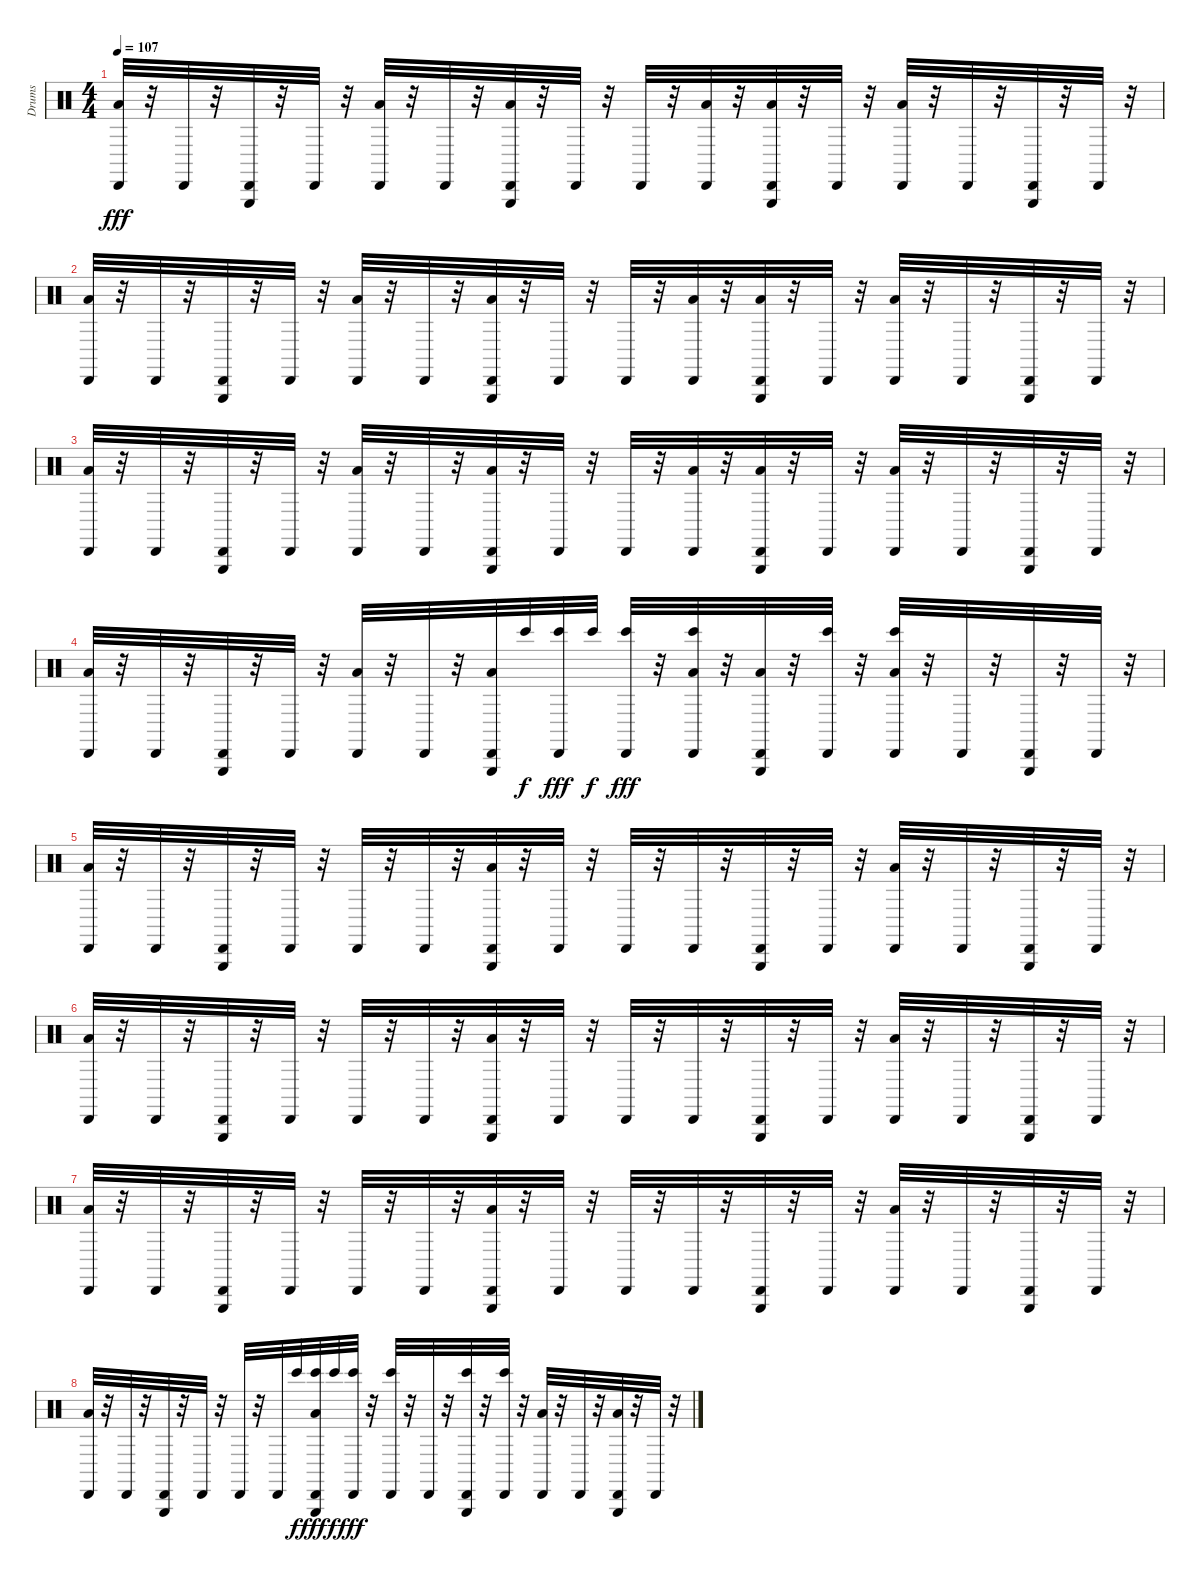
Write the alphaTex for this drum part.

\track ("Drums" "Drums") {instrument percussion}
\staff {score}
\articulation defaults
\ts (4 4)
\tempo 107
\clef neutral
\ks c
("Cabasa (hit)" "Low Floor Tom (hit)").32{dy fff} r.32 "Cabasa (hit)".32 r.32 ("Cabasa (hit)" "Triangle (hit)").32 r.32 "Cabasa (hit)".32 r.32 ("Cabasa (hit)" "Low Floor Tom (hit)").32 r.32 "Cabasa (hit)".32 r.32 ("Cabasa (hit)" "Triangle (hit)" "Low Floor Tom (hit)").32 r.32 "Cabasa (hit)".32 r.32 "Cabasa (hit)".32 r.32 ("Cabasa (hit)" "Low Floor Tom (hit)").32 r.32 ("Cabasa (hit)" "Triangle (hit)" "Low Floor Tom (hit)").32 r.32 "Cabasa (hit)".32 r.32 ("Cabasa (hit)" "Low Floor Tom (hit)").32 r.32 "Cabasa (hit)".32 r.32 ("Cabasa (hit)" "Triangle (hit)").32 r.32 "Cabasa (hit)".32 r.32 |
("Cabasa (hit)" "Low Floor Tom (hit)").32 r.32 "Cabasa (hit)".32 r.32 ("Cabasa (hit)" "Triangle (hit)").32 r.32 "Cabasa (hit)".32 r.32 ("Cabasa (hit)" "Low Floor Tom (hit)").32 r.32 "Cabasa (hit)".32 r.32 ("Cabasa (hit)" "Triangle (hit)" "Low Floor Tom (hit)").32 r.32 "Cabasa (hit)".32 r.32 "Cabasa (hit)".32 r.32 ("Cabasa (hit)" "Low Floor Tom (hit)").32 r.32 ("Cabasa (hit)" "Triangle (hit)" "Low Floor Tom (hit)").32 r.32 "Cabasa (hit)".32 r.32 ("Cabasa (hit)" "Low Floor Tom (hit)").32 r.32 "Cabasa (hit)".32 r.32 ("Cabasa (hit)" "Triangle (hit)").32 r.32 "Cabasa (hit)".32 r.32 |
("Cabasa (hit)" "Low Floor Tom (hit)").32 r.32 "Cabasa (hit)".32 r.32 ("Cabasa (hit)" "Triangle (hit)").32 r.32 "Cabasa (hit)".32 r.32 ("Cabasa (hit)" "Low Floor Tom (hit)").32 r.32 "Cabasa (hit)".32 r.32 ("Cabasa (hit)" "Triangle (hit)" "Low Floor Tom (hit)").32 r.32 "Cabasa (hit)".32 r.32 "Cabasa (hit)".32 r.32 ("Cabasa (hit)" "Low Floor Tom (hit)").32 r.32 ("Cabasa (hit)" "Triangle (hit)" "Low Floor Tom (hit)").32 r.32 "Cabasa (hit)".32 r.32 ("Cabasa (hit)" "Low Floor Tom (hit)").32 r.32 "Cabasa (hit)".32 r.32 ("Cabasa (hit)" "Triangle (hit)").32 r.32 "Cabasa (hit)".32 r.32 |
("Cabasa (hit)" "Low Floor Tom (hit)").32 r.32 "Cabasa (hit)".32 r.32 ("Cabasa (hit)" "Triangle (hit)").32 r.32 "Cabasa (hit)".32 r.32 ("Cabasa (hit)" "Low Floor Tom (hit)").32 r.32 "Cabasa (hit)".32 r.32 ("Cabasa (hit)" "Triangle (hit)" "Low Floor Tom (hit)").32 "Bongo High (hit)".32{dy f} ("Cabasa (hit)" "Bongo High (hit)").32{dy fff} "Bongo High (hit)".32{dy f} ("Cabasa (hit)" "Bongo High (hit)").32{dy fff} r.32 ("Cabasa (hit)" "Low Floor Tom (hit)" "Bongo High (hit)").32 r.32 ("Cabasa (hit)" "Triangle (hit)" "Low Floor Tom (hit)").32 r.32 ("Cabasa (hit)" "Bongo High (hit)").32 r.32 ("Cabasa (hit)" "Low Floor Tom (hit)" "Bongo High (hit)").32 r.32 "Cabasa (hit)".32 r.32 ("Cabasa (hit)" "Triangle (hit)").32 r.32 "Cabasa (hit)".32 r.32 |
("Cabasa (hit)" "Low Floor Tom (hit)").32 r.32 "Cabasa (hit)".32 r.32 ("Cabasa (hit)" "Triangle (hit)").32 r.32 "Cabasa (hit)".32 r.32 "Cabasa (hit)".32 r.32 "Cabasa (hit)".32 r.32 ("Cabasa (hit)" "Triangle (hit)" "Low Floor Tom (hit)").32 r.32 "Cabasa (hit)".32 r.32 "Cabasa (hit)".32 r.32 "Cabasa (hit)".32 r.32 ("Cabasa (hit)" "Triangle (hit)").32 r.32 "Cabasa (hit)".32 r.32 ("Cabasa (hit)" "Low Floor Tom (hit)").32 r.32 "Cabasa (hit)".32 r.32 ("Cabasa (hit)" "Triangle (hit)").32 r.32 "Cabasa (hit)".32 r.32 |
("Cabasa (hit)" "Low Floor Tom (hit)").32 r.32 "Cabasa (hit)".32 r.32 ("Cabasa (hit)" "Triangle (hit)").32 r.32 "Cabasa (hit)".32 r.32 "Cabasa (hit)".32 r.32 "Cabasa (hit)".32 r.32 ("Cabasa (hit)" "Triangle (hit)" "Low Floor Tom (hit)").32 r.32 "Cabasa (hit)".32 r.32 "Cabasa (hit)".32 r.32 "Cabasa (hit)".32 r.32 ("Cabasa (hit)" "Triangle (hit)").32 r.32 "Cabasa (hit)".32 r.32 ("Cabasa (hit)" "Low Floor Tom (hit)").32 r.32 "Cabasa (hit)".32 r.32 ("Cabasa (hit)" "Triangle (hit)").32 r.32 "Cabasa (hit)".32 r.32 |
("Cabasa (hit)" "Low Floor Tom (hit)").32 r.32 "Cabasa (hit)".32 r.32 ("Cabasa (hit)" "Triangle (hit)").32 r.32 "Cabasa (hit)".32 r.32 "Cabasa (hit)".32 r.32 "Cabasa (hit)".32 r.32 ("Cabasa (hit)" "Triangle (hit)" "Low Floor Tom (hit)").32 r.32 "Cabasa (hit)".32 r.32 "Cabasa (hit)".32 r.32 "Cabasa (hit)".32 r.32 ("Cabasa (hit)" "Triangle (hit)").32 r.32 "Cabasa (hit)".32 r.32 ("Cabasa (hit)" "Low Floor Tom (hit)").32 r.32 "Cabasa (hit)".32 r.32 ("Cabasa (hit)" "Triangle (hit)").32 r.32 "Cabasa (hit)".32 r.32 |
("Cabasa (hit)" "Low Floor Tom (hit)").32 r.32 "Cabasa (hit)".32 r.32 ("Cabasa (hit)" "Triangle (hit)").32 r.32 "Cabasa (hit)".32 r.32 "Cabasa (hit)".32 r.32 "Cabasa (hit)".32 "Bongo High (hit)".32{dy f} ("Cabasa (hit)" "Triangle (hit)" "Low Floor Tom (hit)" "Bongo High (hit)").32{dy fff} "Bongo High (hit)".32{dy f} ("Cabasa (hit)" "Bongo High (hit)").32{dy fff} r.32 ("Cabasa (hit)" "Bongo High (hit)").32 r.32 "Cabasa (hit)".32 r.32 ("Cabasa (hit)" "Triangle (hit)" "Bongo High (hit)").32 r.32 ("Cabasa (hit)" "Bongo High (hit)").32 r.32 ("Cabasa (hit)" "Low Floor Tom (hit)").32 r.32 "Cabasa (hit)".32 r.32 ("Cabasa (hit)" "Triangle (hit)" "Low Floor Tom (hit)").32 r.32 "Cabasa (hit)".32 r.32
